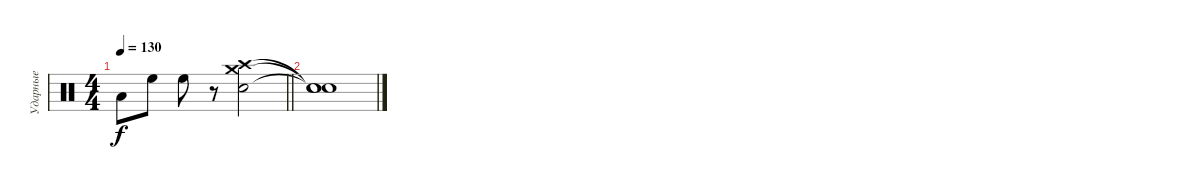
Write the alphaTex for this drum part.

\track ("Ударные" "Ударные") {instrument percussion}
\staff {score}
\articulation defaults
\ts (4 4)
\tempo 130
\clef neutral
\barLineRight lightlight
\ks c "Low Tom (hit)".8{dy f} "High Floor Tom (hit)".8 "High Floor Tom (hit)".8
r.8 ("Crash high (hit)" "Crash medium (hit)" "Snare (hit) 2").2 |
("Snare (hit)"{t} "Snare (hit)"{t} "Snare (hit)"{t}).1
